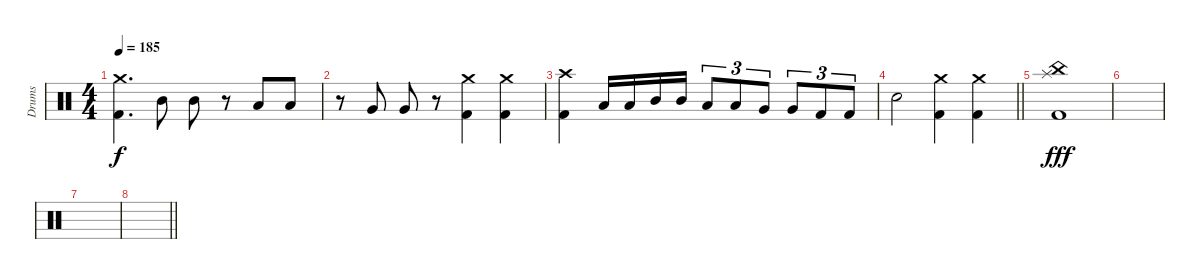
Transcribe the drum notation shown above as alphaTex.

\track ("Drums" "Drums") {instrument percussion}
\staff {score}
\articulation defaults
\ts (4 4)
\tempo 185
\clef neutral
\ks c
("Crash medium (hit)" "Kick (hit) 2").4{d dy f} "Mid Tom (hit)".8 "Mid Tom (hit)".8 r.8 "Low Tom (hit)".8 "Low Tom (hit)".8 |
r.8 "Very Low Tom (hit)".8 "Very Low Tom (hit)".8 r.8 ("Crash medium (hit)" "Kick (hit) 2").4 ("Crash medium (hit)" "Kick (hit) 2").4 |
("Crash high (hit)" "Kick (hit) 2").4 "Low Tom (hit)".16 "Low Tom (hit)".16 "Mid Tom (hit)".16 "Mid Tom (hit)".16 "Low Tom (hit)".8{tu (3 2)} "Low Tom (hit)".8{tu (3 2)} "Very Low Tom (hit)".8{tu (3 2)} "Very Low Tom (hit)".8{tu (3 2)} "Kick (hit) 2".8{tu (3 2)} "Kick (hit) 2".8{tu (3 2)} |
\barLineRight lightlight "Electric Snare (hit)".2
("Crash medium (hit)" "Kick (hit) 2").4 ("Crash medium (hit)" "Kick (hit) 2").4 |
("China (hit)" "Splash (hit)" "Kick (hit) 2").1{dy fff} |
|
|
\barLineRight lightlight
